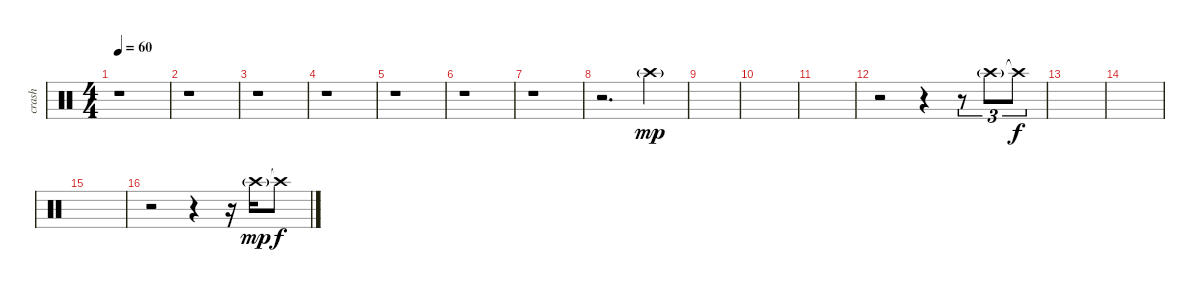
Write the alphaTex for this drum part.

\track ("crash" "crash") {instrument percussion}
\staff {score}
\articulation defaults
\ts (4 4)
\tempo 60
\clef neutral
\ks c
r.1{dy mp} |
r.1 |
r.1 |
r.1 |
r.1 |
r.1 |
r.1 |
r.2{d} "Crash high (hit)"{g}.4 |
|
|
|
r.2 r.4 r.8{tu (3 2)} "Crash high (hit)"{g}.8{tu (3 2)} "Crash high (hit)"{t}.8{tu (3 2) dy f} |
|
|
|
r.2 r.4 r.16 "Crash high (hit)"{g}.16{dy mp} "Crash high (hit)"{t}.8{dy f}
